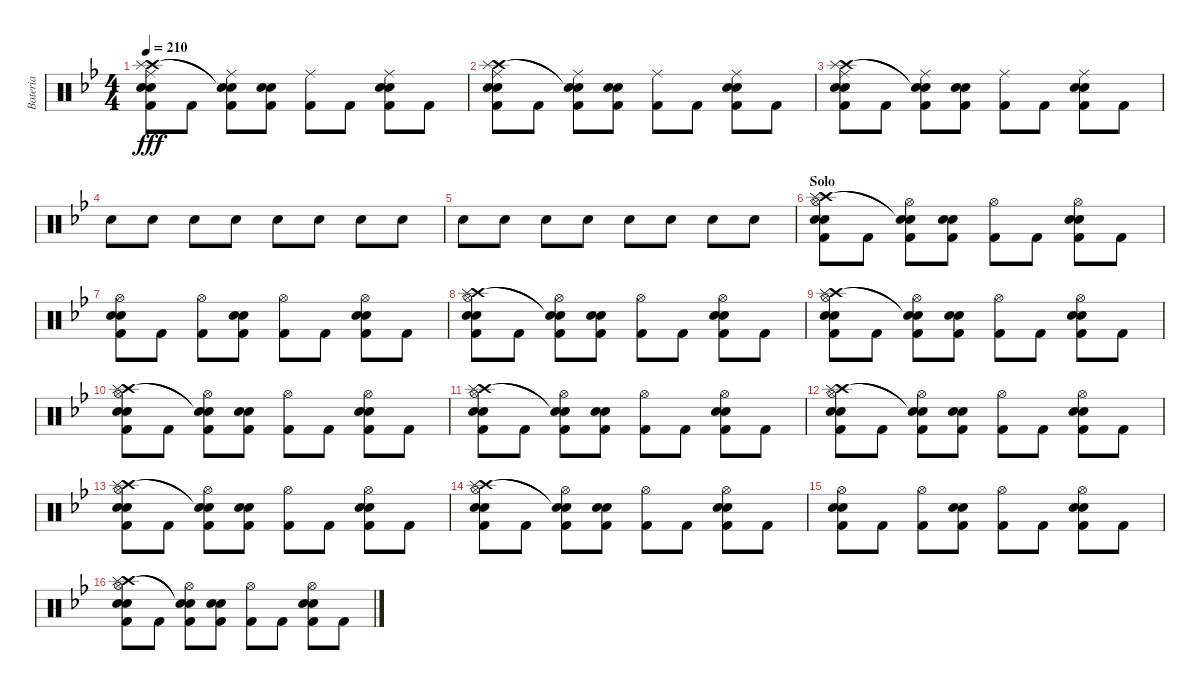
\track ("Bateria" "Bateria") {instrument percussion}
\staff {score}
\articulation defaults
\ts (4 4)
\tempo 210
\clef neutral
\ks gminor
("Ride (middle)" "Crash high (hit)" "Splash (hit)" "Snare (hit) 2" "Kick (hit) 2" "Electric Snare (hit)").8{dy fff} "Kick (hit) 2".8 ("Ride (middle)" "Snare (hit)"{t} "Snare (hit)"{t} "Kick (hit) 2").8 ("Snare (hit) 2" "Kick (hit) 2" "Electric Snare (hit)").8 ("Ride (middle)" "Kick (hit) 2").8 "Kick (hit) 2".8 ("Ride (middle)" "Snare (hit) 2" "Kick (hit) 2" "Electric Snare (hit)").8 "Kick (hit) 2".8 |
("Ride (middle)" "Crash high (hit)" "Splash (hit)" "Snare (hit) 2" "Kick (hit) 2" "Electric Snare (hit)").8 "Kick (hit) 2".8 ("Ride (middle)" "Snare (hit)"{t} "Snare (hit)"{t} "Kick (hit) 2").8 ("Snare (hit) 2" "Kick (hit) 2" "Electric Snare (hit)").8 ("Ride (middle)" "Kick (hit) 2").8 "Kick (hit) 2".8 ("Ride (middle)" "Snare (hit) 2" "Kick (hit) 2" "Electric Snare (hit)").8 "Kick (hit) 2".8 |
("Ride (middle)" "Crash high (hit)" "Splash (hit)" "Snare (hit) 2" "Kick (hit) 2" "Electric Snare (hit)").8 "Kick (hit) 2".8 ("Ride (middle)" "Snare (hit)"{t} "Snare (hit)"{t} "Kick (hit) 2").8 ("Snare (hit) 2" "Kick (hit) 2" "Electric Snare (hit)").8 ("Ride (middle)" "Kick (hit) 2").8 "Kick (hit) 2".8 ("Ride (middle)" "Snare (hit) 2" "Kick (hit) 2" "Electric Snare (hit)").8 "Kick (hit) 2".8 |
"Snare (hit) 2".8 "Electric Snare (hit)".8 "Electric Snare (hit)".8 "Snare (hit) 2".8 "Electric Snare (hit)".8 "Electric Snare (hit)".8 "Snare (hit) 2".8 "Electric Snare (hit)".8 |
"Electric Snare (hit)".8 "Snare (hit) 2".8 "Snare (hit) 2".8 "Snare (hit) 2".8 "Snare (hit) 2".8 "Snare (hit) 2".8 "Snare (hit) 2".8 "Snare (hit) 2".8 |
\section ("" "Solo")
("Hi-Hat (open)" "Crash high (hit)" "Splash (hit)" "Snare (hit) 2" "Electric Snare (hit)" "Kick (hit) 2").8 "Kick (hit) 2".8 ("Hi-Hat (open)" "Snare (hit)"{t} "Snare (hit)"{t} "Kick (hit) 2").8 ("Snare (hit) 2" "Electric Snare (hit)" "Kick (hit) 2").8 ("Hi-Hat (open)" "Kick (hit) 2").8 "Kick (hit) 2".8 ("Hi-Hat (open)" "Snare (hit) 2" "Electric Snare (hit)" "Kick (hit) 2").8 "Kick (hit) 2".8 |
("Hi-Hat (open)" "Snare (hit) 2" "Kick (hit) 2" "Electric Snare (hit)").8 "Kick (hit) 2".8 ("Hi-Hat (open)" "Kick (hit) 2").8 ("Snare (hit) 2" "Kick (hit) 2" "Electric Snare (hit)").8 ("Hi-Hat (open)" "Kick (hit) 2").8 "Kick (hit) 2".8 ("Hi-Hat (open)" "Snare (hit) 2" "Kick (hit) 2" "Electric Snare (hit)").8 "Kick (hit) 2".8 |
("Hi-Hat (open)" "Crash high (hit)" "Splash (hit)" "Snare (hit) 2" "Kick (hit) 2" "Electric Snare (hit)").8 "Kick (hit) 2".8 ("Hi-Hat (open)" "Snare (hit)"{t} "Snare (hit)"{t} "Kick (hit) 2").8 ("Snare (hit) 2" "Kick (hit) 2" "Electric Snare (hit)").8 ("Hi-Hat (open)" "Kick (hit) 2").8 "Kick (hit) 2".8 ("Hi-Hat (open)" "Snare (hit) 2" "Kick (hit) 2" "Electric Snare (hit)").8 "Kick (hit) 2".8 |
("Hi-Hat (open)" "Crash high (hit)" "Splash (hit)" "Snare (hit) 2" "Kick (hit) 2" "Electric Snare (hit)").8 "Kick (hit) 2".8 ("Hi-Hat (open)" "Snare (hit)"{t} "Snare (hit)"{t} "Kick (hit) 2").8 ("Snare (hit) 2" "Kick (hit) 2" "Electric Snare (hit)").8 ("Hi-Hat (open)" "Kick (hit) 2").8 "Kick (hit) 2".8 ("Hi-Hat (open)" "Snare (hit) 2" "Kick (hit) 2" "Electric Snare (hit)").8 "Kick (hit) 2".8 |
("Hi-Hat (open)" "Crash high (hit)" "Splash (hit)" "Snare (hit) 2" "Kick (hit) 2" "Electric Snare (hit)").8 "Kick (hit) 2".8 ("Hi-Hat (open)" "Snare (hit)"{t} "Snare (hit)"{t} "Kick (hit) 2").8 ("Snare (hit) 2" "Kick (hit) 2" "Electric Snare (hit)").8 ("Hi-Hat (open)" "Kick (hit) 2").8 "Kick (hit) 2".8 ("Hi-Hat (open)" "Snare (hit) 2" "Kick (hit) 2" "Electric Snare (hit)").8 "Kick (hit) 2".8 |
("Hi-Hat (open)" "Crash high (hit)" "Splash (hit)" "Snare (hit) 2" "Kick (hit) 2" "Electric Snare (hit)").8 "Kick (hit) 2".8 ("Hi-Hat (open)" "Snare (hit)"{t} "Snare (hit)"{t} "Kick (hit) 2").8 ("Snare (hit) 2" "Kick (hit) 2" "Electric Snare (hit)").8 ("Hi-Hat (open)" "Kick (hit) 2").8 "Kick (hit) 2".8 ("Hi-Hat (open)" "Snare (hit) 2" "Kick (hit) 2" "Electric Snare (hit)").8 "Kick (hit) 2".8 |
("Hi-Hat (open)" "Crash high (hit)" "Splash (hit)" "Snare (hit) 2" "Kick (hit) 2" "Electric Snare (hit)").8 "Kick (hit) 2".8 ("Hi-Hat (open)" "Snare (hit)"{t} "Snare (hit)"{t} "Kick (hit) 2").8 ("Snare (hit) 2" "Kick (hit) 2" "Electric Snare (hit)").8 ("Hi-Hat (open)" "Kick (hit) 2").8 "Kick (hit) 2".8 ("Hi-Hat (open)" "Snare (hit) 2" "Kick (hit) 2" "Electric Snare (hit)").8 "Kick (hit) 2".8 |
("Hi-Hat (open)" "Crash high (hit)" "Splash (hit)" "Snare (hit) 2" "Kick (hit) 2" "Electric Snare (hit)").8 "Kick (hit) 2".8 ("Hi-Hat (open)" "Snare (hit)"{t} "Snare (hit)"{t} "Kick (hit) 2").8 ("Snare (hit) 2" "Kick (hit) 2" "Electric Snare (hit)").8 ("Hi-Hat (open)" "Kick (hit) 2").8 "Kick (hit) 2".8 ("Hi-Hat (open)" "Snare (hit) 2" "Kick (hit) 2" "Electric Snare (hit)").8 "Kick (hit) 2".8 |
("Hi-Hat (open)" "Crash high (hit)" "Splash (hit)" "Snare (hit) 2" "Electric Snare (hit)" "Kick (hit) 2").8 "Kick (hit) 2".8 ("Hi-Hat (open)" "Snare (hit)"{t} "Snare (hit)"{t} "Kick (hit) 2").8 ("Snare (hit) 2" "Electric Snare (hit)" "Kick (hit) 2").8 ("Hi-Hat (open)" "Kick (hit) 2").8 "Kick (hit) 2".8 ("Hi-Hat (open)" "Snare (hit) 2" "Electric Snare (hit)" "Kick (hit) 2").8 "Kick (hit) 2".8 |
("Hi-Hat (open)" "Snare (hit) 2" "Kick (hit) 2" "Electric Snare (hit)").8 "Kick (hit) 2".8 ("Hi-Hat (open)" "Kick (hit) 2").8 ("Snare (hit) 2" "Kick (hit) 2" "Electric Snare (hit)").8 ("Hi-Hat (open)" "Kick (hit) 2").8 "Kick (hit) 2".8 ("Hi-Hat (open)" "Snare (hit) 2" "Kick (hit) 2" "Electric Snare (hit)").8 "Kick (hit) 2".8 |
("Hi-Hat (open)" "Crash high (hit)" "Splash (hit)" "Snare (hit) 2" "Kick (hit) 2" "Electric Snare (hit)").8 "Kick (hit) 2".8 ("Hi-Hat (open)" "Snare (hit)"{t} "Snare (hit)"{t} "Kick (hit) 2").8 ("Snare (hit) 2" "Kick (hit) 2" "Electric Snare (hit)").8 ("Hi-Hat (open)" "Kick (hit) 2").8 "Kick (hit) 2".8 ("Hi-Hat (open)" "Snare (hit) 2" "Kick (hit) 2" "Electric Snare (hit)").8 "Kick (hit) 2".8
